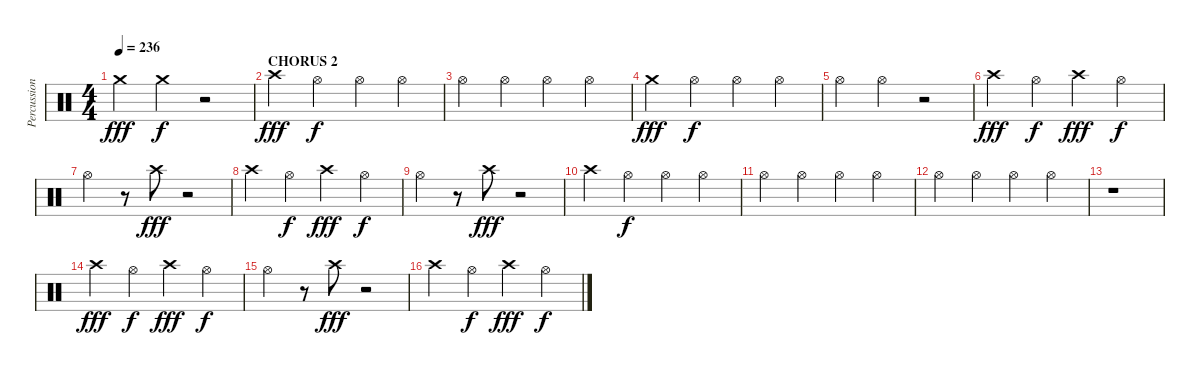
\track ("Percussions" "Percussion") {instrument percussion}
\staff {score}
\articulation defaults
\ts (4 4)
\tempo 236
\clef neutral
\ks c "Crash medium (hit)".4{dy fff} "Crash medium (hit)".4{dy f}
r.2 |
\section ("" "CHORUS 2")
"Crash high (hit)".4{dy fff} "Hi-Hat (open)".4{dy f} "Hi-Hat (open)".4 "Hi-Hat (open)".4 |
"Hi-Hat (open)".4 "Hi-Hat (open)".4 "Hi-Hat (open)".4 "Hi-Hat (open)".4 |
"Crash medium (hit)".4{dy fff} "Hi-Hat (open)".4{dy f} "Hi-Hat (open)".4 "Hi-Hat (open)".4 |
"Hi-Hat (open)".4 "Hi-Hat (open)".4 r.2 |
"Crash high (hit)".4{dy fff} "Hi-Hat (open)".4{dy f} "Crash high (hit)".4{dy fff} "Hi-Hat (open)".4{dy f} |
"Hi-Hat (open)".4 r.8 "Crash high (hit)".8{dy fff} r.2 |
"Crash high (hit)".4 "Hi-Hat (open)".4{dy f} "Crash high (hit)".4{dy fff} "Hi-Hat (open)".4{dy f} |
"Hi-Hat (open)".4 r.8 "Crash high (hit)".8{dy fff} r.2 |
"Crash high (hit)".4 "Hi-Hat (open)".4{dy f} "Hi-Hat (open)".4 "Hi-Hat (open)".4 |
"Hi-Hat (open)".4 "Hi-Hat (open)".4 "Hi-Hat (open)".4 "Hi-Hat (open)".4 |
"Hi-Hat (open)".4 "Hi-Hat (open)".4 "Hi-Hat (open)".4 "Hi-Hat (open)".4 |
r.1 |
"Crash high (hit)".4{dy fff} "Hi-Hat (open)".4{dy f} "Crash high (hit)".4{dy fff} "Hi-Hat (open)".4{dy f} |
"Hi-Hat (open)".4 r.8 "Crash high (hit)".8{dy fff} r.2 |
"Crash high (hit)".4 "Hi-Hat (open)".4{dy f} "Crash high (hit)".4{dy fff} "Hi-Hat (open)".4{dy f}
